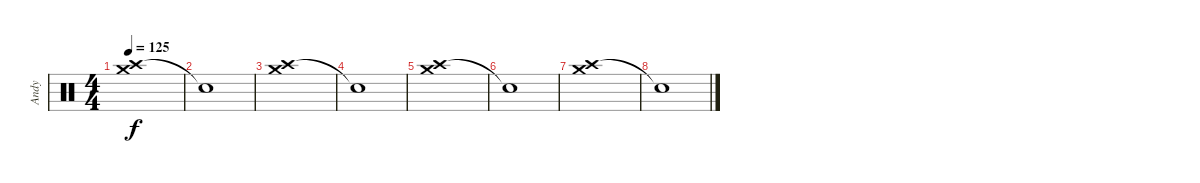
\track ("Andy" "Andy") {instrument percussion}
\staff {score}
\articulation defaults
\ts (4 4)
\tempo 125
\clef neutral
\ks c
("Crash high (hit)" "Crash medium (hit)").1{dy f} |
"Snare (hit)"{t}.1 |
("Crash high (hit)" "Crash medium (hit)").1 |
"Snare (hit)"{t}.1 |
("Crash high (hit)" "Crash medium (hit)").1 |
"Snare (hit)"{t}.1 |
("Crash high (hit)" "Crash medium (hit)").1 |
"Snare (hit)"{t}.1
